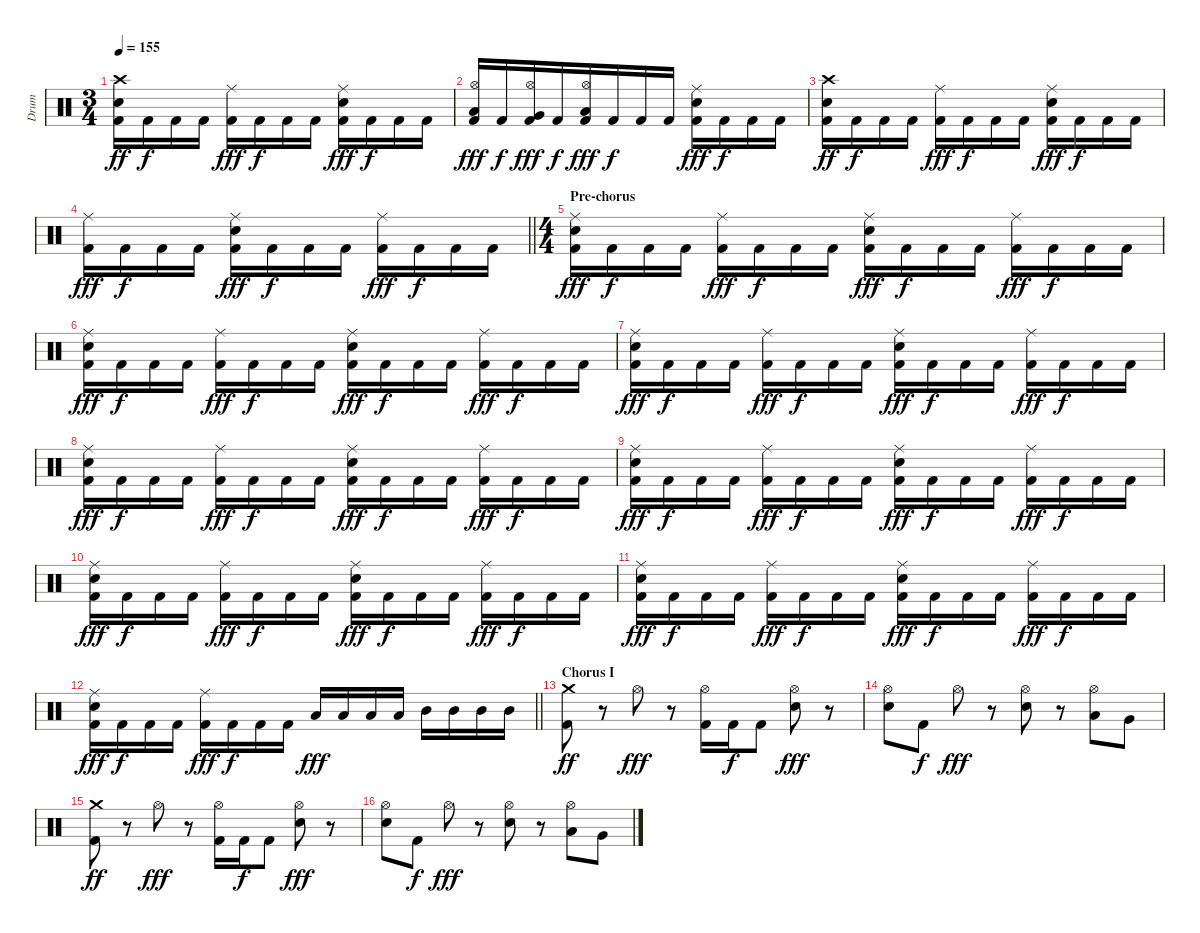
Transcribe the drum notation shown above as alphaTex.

\track ("Drum" "Drum") {instrument percussion}
\staff {score}
\articulation defaults
\ts (3 4)
\tempo 155
\clef neutral
\ks c
("Crash high (hit)" "Snare (hit) 2" "Kick (hit) 2").16{dy ff} "Kick (hit) 2".16{dy f} "Kick (hit) 2".16 "Kick (hit) 2".16 ("Ride (middle)" "Kick (hit) 2").16{dy fff} "Kick (hit) 2".16{dy f} "Kick (hit) 2".16 "Kick (hit) 2".16 ("Ride (middle)" "Snare (hit) 2" "Kick (hit) 2").16{dy fff} "Kick (hit) 2".16{dy f} "Kick (hit) 2".16 "Kick (hit) 2".16 |
("Hi-Hat (open)" "Low Tom (hit)" "Kick (hit) 2").16{dy fff beam merge} "Kick (hit) 2".16{dy f beam merge} ("Hi-Hat (open)" "Very Low Tom (hit)" "Kick (hit) 2").16{dy fff} "Kick (hit) 2".16{dy f beam merge} ("Hi-Hat (open)" "Low Floor Tom (hit)" "Kick (hit) 2").16{dy fff} "Kick (hit) 2".16{dy f} "Kick (hit) 2".16{beam merge} "Kick (hit) 2".16 ("Ride (middle)" "Snare (hit) 2" "Kick (hit) 2").16{dy fff} "Kick (hit) 2".16{dy f} "Kick (hit) 2".16 "Kick (hit) 2".16 |
("Crash high (hit)" "Snare (hit) 2" "Kick (hit) 2").16{dy ff} "Kick (hit) 2".16{dy f} "Kick (hit) 2".16 "Kick (hit) 2".16 ("Ride (middle)" "Kick (hit) 2").16{dy fff} "Kick (hit) 2".16{dy f} "Kick (hit) 2".16 "Kick (hit) 2".16 ("Ride (middle)" "Snare (hit) 2" "Kick (hit) 2").16{dy fff} "Kick (hit) 2".16{dy f} "Kick (hit) 2".16 "Kick (hit) 2".16 |
\barLineRight lightlight
("Ride (middle)" "Kick (hit) 2").16{dy fff} "Kick (hit) 2".16{dy f} "Kick (hit) 2".16 "Kick (hit) 2".16 ("Ride (middle)" "Snare (hit) 2" "Kick (hit) 2").16{dy fff} "Kick (hit) 2".16{dy f} "Kick (hit) 2".16 "Kick (hit) 2".16 ("Ride (middle)" "Kick (hit) 2").16{dy fff} "Kick (hit) 2".16{dy f} "Kick (hit) 2".16 "Kick (hit) 2".16 |
\ts (4 4)
\section ("" "Pre-chorus")
("Ride (middle)" "Snare (hit) 2" "Kick (hit) 2").16{dy fff} "Kick (hit) 2".16{dy f} "Kick (hit) 2".16 "Kick (hit) 2".16 ("Ride (middle)" "Kick (hit) 2").16{dy fff} "Kick (hit) 2".16{dy f} "Kick (hit) 2".16 "Kick (hit) 2".16 ("Ride (middle)" "Snare (hit) 2" "Kick (hit) 2").16{dy fff} "Kick (hit) 2".16{dy f} "Kick (hit) 2".16 "Kick (hit) 2".16 ("Ride (middle)" "Kick (hit) 2").16{dy fff} "Kick (hit) 2".16{dy f} "Kick (hit) 2".16 "Kick (hit) 2".16 |
("Ride (middle)" "Snare (hit) 2" "Kick (hit) 2").16{dy fff} "Kick (hit) 2".16{dy f} "Kick (hit) 2".16 "Kick (hit) 2".16 ("Ride (middle)" "Kick (hit) 2").16{dy fff} "Kick (hit) 2".16{dy f} "Kick (hit) 2".16 "Kick (hit) 2".16 ("Ride (middle)" "Snare (hit) 2" "Kick (hit) 2").16{dy fff} "Kick (hit) 2".16{dy f} "Kick (hit) 2".16 "Kick (hit) 2".16 ("Ride (middle)" "Kick (hit) 2").16{dy fff} "Kick (hit) 2".16{dy f} "Kick (hit) 2".16 "Kick (hit) 2".16 |
("Ride (middle)" "Snare (hit) 2" "Kick (hit) 2").16{dy fff} "Kick (hit) 2".16{dy f} "Kick (hit) 2".16 "Kick (hit) 2".16 ("Ride (middle)" "Kick (hit) 2").16{dy fff} "Kick (hit) 2".16{dy f} "Kick (hit) 2".16 "Kick (hit) 2".16 ("Ride (middle)" "Snare (hit) 2" "Kick (hit) 2").16{dy fff} "Kick (hit) 2".16{dy f} "Kick (hit) 2".16 "Kick (hit) 2".16 ("Ride (middle)" "Kick (hit) 2").16{dy fff} "Kick (hit) 2".16{dy f} "Kick (hit) 2".16 "Kick (hit) 2".16 |
("Ride (middle)" "Snare (hit) 2" "Kick (hit) 2").16{dy fff} "Kick (hit) 2".16{dy f} "Kick (hit) 2".16 "Kick (hit) 2".16 ("Ride (middle)" "Kick (hit) 2").16{dy fff} "Kick (hit) 2".16{dy f} "Kick (hit) 2".16 "Kick (hit) 2".16 ("Ride (middle)" "Snare (hit) 2" "Kick (hit) 2").16{dy fff} "Kick (hit) 2".16{dy f} "Kick (hit) 2".16 "Kick (hit) 2".16 ("Ride (middle)" "Kick (hit) 2").16{dy fff} "Kick (hit) 2".16{dy f} "Kick (hit) 2".16 "Kick (hit) 2".16 |
("Ride (middle)" "Snare (hit) 2" "Kick (hit) 2").16{dy fff} "Kick (hit) 2".16{dy f} "Kick (hit) 2".16 "Kick (hit) 2".16 ("Ride (middle)" "Kick (hit) 2").16{dy fff} "Kick (hit) 2".16{dy f} "Kick (hit) 2".16 "Kick (hit) 2".16 ("Ride (middle)" "Snare (hit) 2" "Kick (hit) 2").16{dy fff} "Kick (hit) 2".16{dy f} "Kick (hit) 2".16 "Kick (hit) 2".16 ("Ride (middle)" "Kick (hit) 2").16{dy fff} "Kick (hit) 2".16{dy f} "Kick (hit) 2".16 "Kick (hit) 2".16 |
("Ride (middle)" "Snare (hit) 2" "Kick (hit) 2").16{dy fff} "Kick (hit) 2".16{dy f} "Kick (hit) 2".16 "Kick (hit) 2".16 ("Ride (middle)" "Kick (hit) 2").16{dy fff} "Kick (hit) 2".16{dy f} "Kick (hit) 2".16 "Kick (hit) 2".16 ("Ride (middle)" "Snare (hit) 2" "Kick (hit) 2").16{dy fff} "Kick (hit) 2".16{dy f} "Kick (hit) 2".16 "Kick (hit) 2".16 ("Ride (middle)" "Kick (hit) 2").16{dy fff} "Kick (hit) 2".16{dy f} "Kick (hit) 2".16 "Kick (hit) 2".16 |
("Ride (middle)" "Snare (hit) 2" "Kick (hit) 2").16{dy fff} "Kick (hit) 2".16{dy f} "Kick (hit) 2".16 "Kick (hit) 2".16 ("Ride (middle)" "Kick (hit) 2").16{dy fff} "Kick (hit) 2".16{dy f} "Kick (hit) 2".16 "Kick (hit) 2".16 ("Ride (middle)" "Snare (hit) 2" "Kick (hit) 2").16{dy fff} "Kick (hit) 2".16{dy f} "Kick (hit) 2".16 "Kick (hit) 2".16 ("Ride (middle)" "Kick (hit) 2").16{dy fff} "Kick (hit) 2".16{dy f} "Kick (hit) 2".16 "Kick (hit) 2".16 |
\barLineRight lightlight
("Ride (middle)" "Snare (hit) 2" "Kick (hit) 2").16{dy fff} "Kick (hit) 2".16{dy f} "Kick (hit) 2".16 "Kick (hit) 2".16 ("Ride (middle)" "Kick (hit) 2").16{dy fff} "Kick (hit) 2".16{dy f} "Kick (hit) 2".16 "Kick (hit) 2".16 "Low Tom (hit)".16{dy fff} "Low Tom (hit)".16 "Low Tom (hit)".16 "Low Tom (hit)".16 "Mid Tom (hit)".16 "Mid Tom (hit)".16 "Mid Tom (hit)".16 "Mid Tom (hit)".16 |
\section ("" "Chorus I")
("Crash medium (hit)" "Kick (hit) 2").8{dy ff} r.8 "Hi-Hat (open)".8{dy fff} r.8 ("Hi-Hat (open)" "Kick (hit) 2").16 "Kick (hit) 2".16{dy f} "Kick (hit) 2".8 ("Hi-Hat (open)" "Snare (hit) 2").8{dy fff} r.8 |
("Hi-Hat (open)" "Snare (hit) 2").8 "Kick (hit) 2".8{dy f} "Hi-Hat (open)".8{dy fff} r.8 ("Hi-Hat (open)" "Snare (hit) 2").8 r.8 ("Hi-Hat (open)" "Low Floor Tom (hit)").8 "Very Low Tom (hit)".8 |
("Crash medium (hit)" "Kick (hit) 2").8{dy ff} r.8 "Hi-Hat (open)".8{dy fff} r.8 ("Hi-Hat (open)" "Kick (hit) 2").16 "Kick (hit) 2".16{dy f} "Kick (hit) 2".8 ("Hi-Hat (open)" "Snare (hit) 2").8{dy fff} r.8 |
("Hi-Hat (open)" "Snare (hit) 2").8 "Kick (hit) 2".8{dy f} "Hi-Hat (open)".8{dy fff} r.8 ("Hi-Hat (open)" "Snare (hit) 2").8 r.8 ("Hi-Hat (open)" "Low Floor Tom (hit)").8 "Very Low Tom (hit)".8
